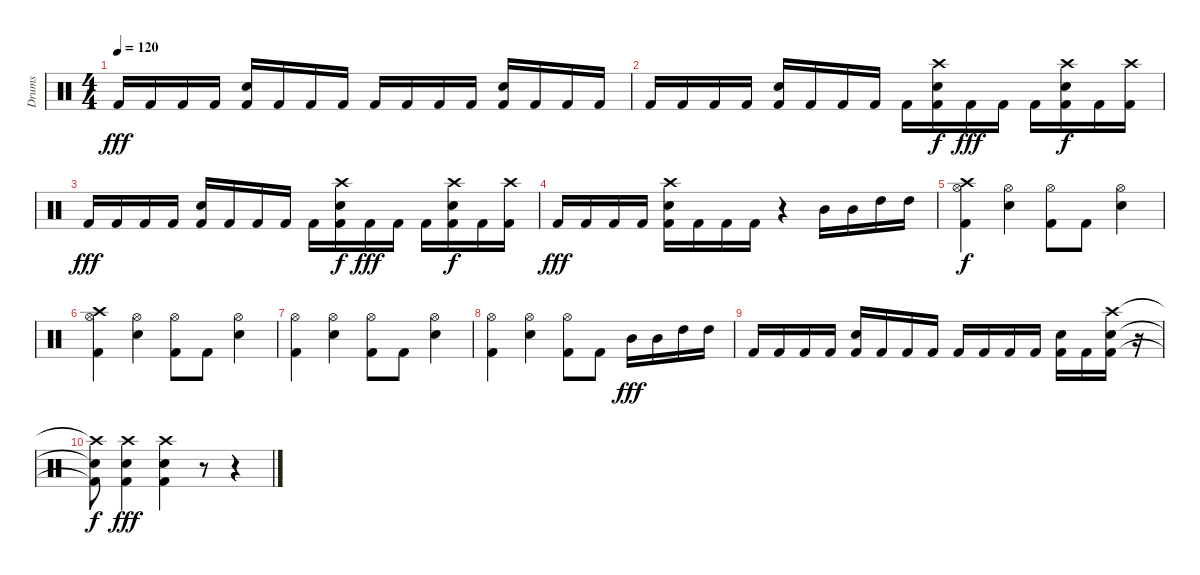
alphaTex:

\track ("Drums" "Drums") {instrument percussion}
\staff {score}
\articulation defaults
\ts (4 4)
\tempo 120
\clef neutral
\ks c "Kick (hit) 2".16{dy fff} "Kick (hit) 2".16 "Kick (hit) 2".16 "Kick (hit) 2".16
("Snare (hit) 2" "Kick (hit) 2").16 "Kick (hit) 2".16 "Kick (hit) 2".16 "Kick (hit) 2".16 "Kick (hit) 2".16 "Kick (hit) 2".16 "Kick (hit) 2".16 "Kick (hit) 2".16 ("Snare (hit) 2" "Kick (hit) 2").16 "Kick (hit) 2".16 "Kick (hit) 2".16 "Kick (hit) 2".16 |
"Kick (hit) 2".16 "Kick (hit) 2".16 "Kick (hit) 2".16 "Kick (hit) 2".16 ("Snare (hit) 2" "Kick (hit) 2").16 "Kick (hit) 2".16 "Kick (hit) 2".16 "Kick (hit) 2".16 "Kick (hit) 2".16 ("Crash high (hit)" "Snare (hit) 2" "Kick (hit) 2").16{dy f} "Kick (hit) 2".16{dy fff} "Kick (hit) 2".16 "Kick (hit) 2".16 ("Crash high (hit)" "Snare (hit) 2" "Kick (hit) 2").16{dy f} "Kick (hit) 2".16 ("Crash high (hit)" "Kick (hit) 2").16 |
"Kick (hit) 2".16{dy fff} "Kick (hit) 2".16 "Kick (hit) 2".16 "Kick (hit) 2".16 ("Snare (hit) 2" "Kick (hit) 2").16 "Kick (hit) 2".16 "Kick (hit) 2".16 "Kick (hit) 2".16 "Kick (hit) 2".16 ("Crash high (hit)" "Snare (hit) 2" "Kick (hit) 2").16{dy f} "Kick (hit) 2".16{dy fff} "Kick (hit) 2".16 "Kick (hit) 2".16 ("Crash high (hit)" "Snare (hit) 2" "Kick (hit) 2").16{dy f} "Kick (hit) 2".16 ("Crash high (hit)" "Kick (hit) 2").16 |
"Kick (hit) 2".16{dy fff} "Kick (hit) 2".16 "Kick (hit) 2".16 "Kick (hit) 2".16 ("Crash high (hit)" "Snare (hit) 2" "Kick (hit) 2").16 "Kick (hit) 2".16 "Kick (hit) 2".16 "Kick (hit) 2".16 r.4 "Mid Tom (hit)".16 "Mid Tom (hit)".16 "High Tom (hit)".16 "High Tom (hit)".16 |
("Kick (hit) 2" "Hi-Hat (open)" "Crash high (hit)").4{dy f} ("Hi-Hat (open)" "Snare (hit) 2").4 ("Hi-Hat (open)" "Kick (hit) 2").8 "Kick (hit) 2".8 ("Hi-Hat (open)" "Snare (hit) 2").4 |
("Kick (hit) 2" "Hi-Hat (open)" "Crash high (hit)").4 ("Hi-Hat (open)" "Snare (hit) 2").4 ("Hi-Hat (open)" "Kick (hit) 2").8 "Kick (hit) 2".8 ("Hi-Hat (open)" "Snare (hit) 2").4 |
("Kick (hit) 2" "Hi-Hat (open)").4 ("Hi-Hat (open)" "Snare (hit) 2").4 ("Hi-Hat (open)" "Kick (hit) 2").8 "Kick (hit) 2".8 ("Hi-Hat (open)" "Snare (hit) 2").4 |
("Kick (hit) 2" "Hi-Hat (open)").4 ("Hi-Hat (open)" "Snare (hit) 2").4 ("Hi-Hat (open)" "Kick (hit) 2").8 "Kick (hit) 2".8 "Mid Tom (hit)".16{dy fff} "Mid Tom (hit)".16 "High Tom (hit)".16 "High Tom (hit)".16 |
"Kick (hit) 2".16 "Kick (hit) 2".16 "Kick (hit) 2".16 "Kick (hit) 2".16 ("Snare (hit) 2" "Kick (hit) 2").16 "Kick (hit) 2".16 "Kick (hit) 2".16 "Kick (hit) 2".16 "Kick (hit) 2".16 "Kick (hit) 2".16 "Kick (hit) 2".16 "Kick (hit) 2".16 ("Snare (hit) 2" "Kick (hit) 2").16 "Kick (hit) 2".16 ("Crash high (hit)" "Snare (hit) 2" "Kick (hit) 2").16 r.16 |
("Crash high (hit)"{t} "Snare (hit) 2"{t} "Kick (hit) 2"{t}).8{dy f} ("Crash high (hit)" "Snare (hit) 2" "Kick (hit) 2").4{dy fff} ("Crash high (hit)" "Snare (hit) 2" "Kick (hit) 2").4 r.8 r.4
